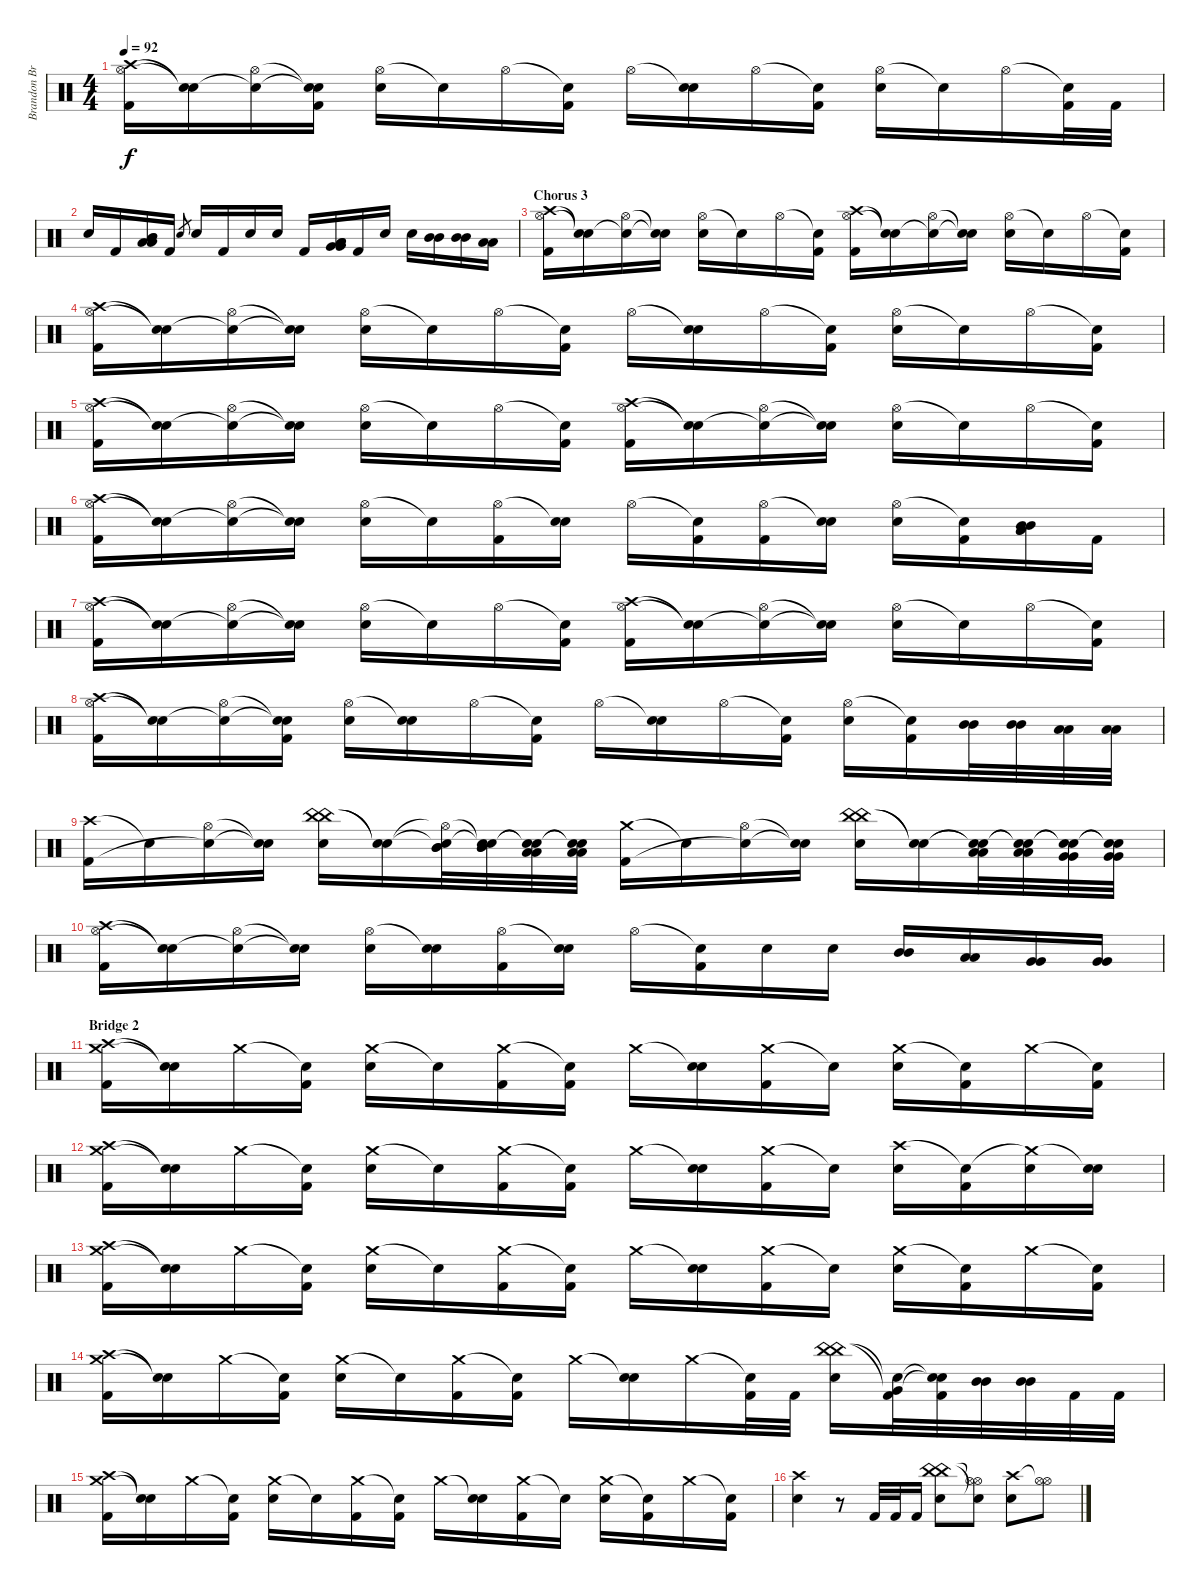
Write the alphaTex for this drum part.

\track ("Brandon Brown (Drums)" "Brandon Br") {instrument percussion}
\staff {score}
\articulation defaults
\ts (4 4)
\tempo 92
\clef neutral
\ks c
("Hi-Hat (open)" "Crash high (hit)" "Kick (hit) 2").16{dy f} ("Snare (hit)"{t} "Snare (hit)"{t}).16 ("Hi-Hat (open)" "Snare (hit)"{t}).16 ("Snare (hit)"{t} "Snare (hit)"{t} "Kick (hit) 2").16 ("Hi-Hat (open)" "Electric Snare (hit)").16 "Snare (hit)"{t}.16 "Hi-Hat (open)".16 ("Snare (hit)"{t} "Kick (hit) 2").16 "Hi-Hat (open)".16 ("Snare (hit)"{t} "Electric Snare (hit)").16 "Hi-Hat (open)".16 ("Snare (hit)"{t} "Kick (hit) 2").16 ("Hi-Hat (open)" "Electric Snare (hit)").16 "Snare (hit)"{t}.16 "Hi-Hat (open)".16 ("Snare (hit)"{t} "Kick (hit) 2").32 "Kick (hit) 2".32 |
"Electric Snare (hit)".16 "Kick (hit) 2".16 ("Mid Tom (hit)" "Mid Tom (hit)" "Low Tom (hit)" "Low Tom (hit)").16 "Kick (hit) 2".16 "Electric Snare (hit)".8{gr} "Electric Snare (hit)".16 "Kick (hit) 2".16 "Electric Snare (hit)".16 "Electric Snare (hit)".16 "Kick (hit) 2".16 ("Low Tom (hit)" "Low Tom (hit)" "Very Low Tom (hit)" "Very Low Tom (hit)").16 "Kick (hit) 2".16 "Electric Snare (hit)".16 "Electric Snare (hit)".16 ("Mid Tom (hit)" "Mid Tom (hit)").16 ("Mid Tom (hit)" "Mid Tom (hit)").16 ("Low Tom (hit)" "Low Tom (hit)").16 |
\section ("" "Chorus 3")
("Hi-Hat (open)" "Crash high (hit)" "Kick (hit) 2").16 ("Snare (hit)"{t} "Snare (hit)"{t}).16 ("Hi-Hat (open)" "Snare (hit)"{t}).16 ("Snare (hit)"{t} "Snare (hit)"{t}).16 ("Hi-Hat (open)" "Electric Snare (hit)").16 "Snare (hit)"{t}.16 "Hi-Hat (open)".16 ("Snare (hit)"{t} "Kick (hit) 2").16 ("Hi-Hat (open)" "Crash high (hit)" "Kick (hit) 2").16 ("Snare (hit)"{t} "Snare (hit)"{t}).16 ("Hi-Hat (open)" "Snare (hit)"{t}).16 ("Snare (hit)"{t} "Snare (hit)"{t}).16 ("Hi-Hat (open)" "Electric Snare (hit)").16 "Snare (hit)"{t}.16 "Hi-Hat (open)".16 ("Snare (hit)"{t} "Kick (hit) 2").16 |
("Hi-Hat (open)" "Crash high (hit)" "Kick (hit) 2").16 ("Snare (hit)"{t} "Snare (hit)"{t}).16 ("Hi-Hat (open)" "Snare (hit)"{t}).16 ("Snare (hit)"{t} "Snare (hit)"{t}).16 ("Hi-Hat (open)" "Electric Snare (hit)").16 "Snare (hit)"{t}.16 "Hi-Hat (open)".16 ("Snare (hit)"{t} "Kick (hit) 2").16 "Hi-Hat (open)".16 ("Snare (hit)"{t} "Electric Snare (hit)").16 "Hi-Hat (open)".16 ("Snare (hit)"{t} "Kick (hit) 2").16 ("Hi-Hat (open)" "Electric Snare (hit)").16 "Snare (hit)"{t}.16 "Hi-Hat (open)".16 ("Snare (hit)"{t} "Kick (hit) 2").16 |
("Hi-Hat (open)" "Crash high (hit)" "Kick (hit) 2").16 ("Snare (hit)"{t} "Snare (hit)"{t}).16 ("Hi-Hat (open)" "Snare (hit)"{t}).16 ("Snare (hit)"{t} "Snare (hit)"{t}).16 ("Hi-Hat (open)" "Electric Snare (hit)").16 "Snare (hit)"{t}.16 "Hi-Hat (open)".16 ("Snare (hit)"{t} "Kick (hit) 2").16 ("Hi-Hat (open)" "Crash high (hit)" "Kick (hit) 2").16 ("Snare (hit)"{t} "Snare (hit)"{t}).16 ("Hi-Hat (open)" "Snare (hit)"{t}).16 ("Snare (hit)"{t} "Snare (hit)"{t}).16 ("Hi-Hat (open)" "Electric Snare (hit)").16 "Snare (hit)"{t}.16 "Hi-Hat (open)".16 ("Snare (hit)"{t} "Kick (hit) 2").16 |
("Hi-Hat (open)" "Crash high (hit)" "Kick (hit) 2").16 ("Snare (hit)"{t} "Snare (hit)"{t}).16 ("Hi-Hat (open)" "Snare (hit)"{t}).16 ("Snare (hit)"{t} "Snare (hit)"{t}).16 ("Hi-Hat (open)" "Electric Snare (hit)").16 "Snare (hit)"{t}.16 ("Hi-Hat (open)" "Kick (hit) 2").16 ("Snare (hit)"{t} "Electric Snare (hit)").16 "Hi-Hat (open)".16 ("Snare (hit)"{t} "Kick (hit) 2").16 ("Hi-Hat (open)" "Kick (hit) 2").16 ("Snare (hit)"{t} "Electric Snare (hit)").16 ("Hi-Hat (open)" "Electric Snare (hit)").16 ("Snare (hit)"{t} "Kick (hit) 2").16 ("Mid Tom (hit)" "Mid Tom (hit)" "Low Tom (hit)" "Low Tom (hit)").16 "Kick (hit) 2".16 |
("Hi-Hat (open)" "Crash high (hit)" "Kick (hit) 2").16 ("Snare (hit)"{t} "Snare (hit)"{t}).16 ("Hi-Hat (open)" "Snare (hit)"{t}).16 ("Snare (hit)"{t} "Snare (hit)"{t}).16 ("Hi-Hat (open)" "Electric Snare (hit)").16 "Snare (hit)"{t}.16 "Hi-Hat (open)".16 ("Snare (hit)"{t} "Kick (hit) 2").16 ("Hi-Hat (open)" "Crash high (hit)" "Kick (hit) 2").16 ("Snare (hit)"{t} "Snare (hit)"{t}).16 ("Hi-Hat (open)" "Snare (hit)"{t}).16 ("Snare (hit)"{t} "Snare (hit)"{t}).16 ("Hi-Hat (open)" "Electric Snare (hit)").16 "Snare (hit)"{t}.16 "Hi-Hat (open)".16 ("Snare (hit)"{t} "Kick (hit) 2").16 |
("Hi-Hat (open)" "Crash high (hit)" "Kick (hit) 2").16 ("Snare (hit)"{t} "Snare (hit)"{t}).16 ("Hi-Hat (open)" "Snare (hit)"{t}).16 ("Snare (hit)"{t} "Snare (hit)"{t} "Kick (hit) 2").16 ("Hi-Hat (open)" "Electric Snare (hit)").16 ("Snare (hit)"{t} "Electric Snare (hit)").16 "Hi-Hat (open)".16 ("Snare (hit)"{t} "Kick (hit) 2").16 "Hi-Hat (open)".16 ("Snare (hit)"{t} "Electric Snare (hit)").16 "Hi-Hat (open)".16 ("Snare (hit)"{t} "Kick (hit) 2").16 ("Hi-Hat (open)" "Electric Snare (hit)").16 ("Snare (hit)"{t} "Kick (hit) 2").16 ("Mid Tom (hit)" "Mid Tom (hit)").32 ("Mid Tom (hit)" "Mid Tom (hit)").32 ("Low Tom (hit)" "Low Tom (hit)").32 ("Low Tom (hit)" "Low Tom (hit)").32 |
("Crash high (hit)" "Kick (hit) 2").16 "Snare (hit)"{t}.16 ("Hi-Hat (open)" "Snare (hit)"{t}).16 ("Snare (hit)"{t} "Snare (hit)"{t}).16 ("China (hit)" "China (hit)" "Electric Snare (hit)").16 ("Snare (hit)"{t} "Snare (hit)"{t}).16 ("Hi-Hat (open)"{t} "Snare (hit)"{t} "Mid Tom (hit)" "Mid Tom (hit)").32 ("Snare (hit)"{t} "Snare (hit)"{t} "Mid Tom (hit)" "Mid Tom (hit)").32 ("Snare (hit)"{t} "Snare (hit)"{t} "Low Tom (hit)" "Low Tom (hit)").32 ("Snare (hit)"{t} "Snare (hit)"{t} "Low Tom (hit)" "Low Tom (hit)").32 ("Crash medium (hit)" "Kick (hit) 2").16 "Snare (hit)"{t}.16 ("Hi-Hat (open)" "Snare (hit)"{t}).16 ("Snare (hit)"{t} "Snare (hit)"{t}).16 ("China (hit)" "China (hit)" "Electric Snare (hit)").16 ("Snare (hit)"{t} "Snare (hit)"{t}).16 ("Snare (hit)"{t} "Snare (hit)"{t} "Low Tom (hit)" "Low Tom (hit)").32 ("Snare (hit)"{t} "Snare (hit)"{t} "Low Tom (hit)" "Low Tom (hit)").32 ("Snare (hit)"{t} "Snare (hit)"{t} "Very Low Tom (hit)" "Very Low Tom (hit)").32 ("Snare (hit)"{t} "Snare (hit)"{t} "Very Low Tom (hit)" "Very Low Tom (hit)").32 |
("Hi-Hat (open)" "Crash high (hit)" "Kick (hit) 2").16 ("Snare (hit)"{t} "Snare (hit)"{t}).16 ("Hi-Hat (open)" "Snare (hit)"{t}).16 ("Snare (hit)"{t} "Snare (hit)"{t}).16 ("Hi-Hat (open)" "Electric Snare (hit)").16 ("Snare (hit)"{t} "Electric Snare (hit)").16 ("Hi-Hat (open)" "Kick (hit) 2").16 ("Snare (hit)"{t} "Electric Snare (hit)").16 "Hi-Hat (open)".16 ("Snare (hit)"{t} "Kick (hit) 2").16 "Electric Snare (hit)".16 "Electric Snare (hit)".16 ("Mid Tom (hit)" "Mid Tom (hit)").16 ("Low Tom (hit)" "Low Tom (hit)").16 ("Very Low Tom (hit)" "Very Low Tom (hit)").16 ("Very Low Tom (hit)" "Very Low Tom (hit)").16 |
\section ("" "Bridge 2")
("Crash high (hit)" "Crash medium (hit)" "Kick (hit) 2").16 ("Snare (hit)"{t} "Snare (hit)"{t}).16 "Crash medium (hit)".16 ("Snare (hit)"{t} "Kick (hit) 2").16 ("Crash medium (hit)" "Electric Snare (hit)").16 "Snare (hit)"{t}.16 ("Crash medium (hit)" "Kick (hit) 2").16 ("Snare (hit)"{t} "Kick (hit) 2").16 "Crash medium (hit)".16 ("Snare (hit)"{t} "Electric Snare (hit)").16 ("Crash medium (hit)" "Kick (hit) 2").16 "Snare (hit)"{t}.16 ("Crash medium (hit)" "Electric Snare (hit)").16 ("Snare (hit)"{t} "Kick (hit) 2").16 "Crash medium (hit)".16 ("Snare (hit)"{t} "Kick (hit) 2").16 |
("Crash high (hit)" "Crash medium (hit)" "Kick (hit) 2").16 ("Snare (hit)"{t} "Snare (hit)"{t}).16 "Crash medium (hit)".16 ("Snare (hit)"{t} "Kick (hit) 2").16 ("Crash medium (hit)" "Electric Snare (hit)").16 "Snare (hit)"{t}.16 ("Crash medium (hit)" "Kick (hit) 2").16 ("Snare (hit)"{t} "Kick (hit) 2").16 "Crash medium (hit)".16 ("Snare (hit)"{t} "Electric Snare (hit)").16 ("Crash medium (hit)" "Kick (hit) 2").16 "Snare (hit)"{t}.16 ("Crash high (hit)" "Electric Snare (hit)").16 ("Snare (hit)"{t} "Kick (hit) 2").16 ("Crash medium (hit)"{t} "Electric Snare (hit)").16 ("Snare (hit)"{t} "Electric Snare (hit)").16 |
("Crash high (hit)" "Crash medium (hit)" "Kick (hit) 2").16 ("Snare (hit)"{t} "Snare (hit)"{t}).16 "Crash medium (hit)".16 ("Snare (hit)"{t} "Kick (hit) 2").16 ("Crash medium (hit)" "Electric Snare (hit)").16 "Snare (hit)"{t}.16 ("Crash medium (hit)" "Kick (hit) 2").16 ("Snare (hit)"{t} "Kick (hit) 2").16 "Crash medium (hit)".16 ("Snare (hit)"{t} "Electric Snare (hit)").16 ("Crash medium (hit)" "Kick (hit) 2").16 "Snare (hit)"{t}.16 ("Crash medium (hit)" "Electric Snare (hit)").16 ("Snare (hit)"{t} "Kick (hit) 2").16 "Crash medium (hit)".16 ("Snare (hit)"{t} "Kick (hit) 2").16 |
("Crash high (hit)" "Crash medium (hit)" "Kick (hit) 2").16 ("Snare (hit)"{t} "Snare (hit)"{t}).16 "Crash medium (hit)".16 ("Snare (hit)"{t} "Kick (hit) 2").16 ("Crash medium (hit)" "Electric Snare (hit)").16 "Snare (hit)"{t}.16 ("Crash medium (hit)" "Kick (hit) 2").16 ("Snare (hit)"{t} "Kick (hit) 2").16 "Crash medium (hit)".16 ("Snare (hit)"{t} "Electric Snare (hit)").16 "Crash medium (hit)".16 ("Snare (hit)"{t} "Kick (hit) 2").32 "Kick (hit) 2".32 ("China (hit)" "China (hit)" "Electric Snare (hit)").16 ("Snare (hit)"{t} "Very Low Tom (hit)"{t} "Kick (hit) 2").32 ("Snare (hit)"{t} "Snare (hit)"{t} "Kick (hit) 2").32 ("Mid Tom (hit)" "Mid Tom (hit)").32 ("Mid Tom (hit)" "Mid Tom (hit)").32 "Kick (hit) 2".32 "Kick (hit) 2".32 |
("Crash high (hit)" "Crash medium (hit)" "Kick (hit) 2").16 ("Snare (hit)"{t} "Snare (hit)"{t}).16 "Crash medium (hit)".16 ("Snare (hit)"{t} "Kick (hit) 2").16 ("Crash medium (hit)" "Electric Snare (hit)").16 "Snare (hit)"{t}.16 ("Crash medium (hit)" "Kick (hit) 2").16 ("Snare (hit)"{t} "Kick (hit) 2").16 "Crash medium (hit)".16 ("Snare (hit)"{t} "Electric Snare (hit)").16 ("Crash medium (hit)" "Kick (hit) 2").16 "Snare (hit)"{t}.16 ("Crash medium (hit)" "Electric Snare (hit)").16 ("Snare (hit)"{t} "Kick (hit) 2").16 "Crash medium (hit)".16 ("Snare (hit)"{t} "Kick (hit) 2").16 |
("Crash high (hit)" "Electric Snare (hit)").4 r.8 "Kick (hit) 2".32 "Kick (hit) 2".32 "Kick (hit) 2".16 ("China (hit)" "China (hit)" "Electric Snare (hit)").8 ("Hi-Hat (open)"{t} "Snare (hit)"{t} "Hi-Hat (open)").8 ("Crash high (hit)" "Electric Snare (hit)").8 ("Hi-Hat (open)"{t} "Hi-Hat (open)").8
